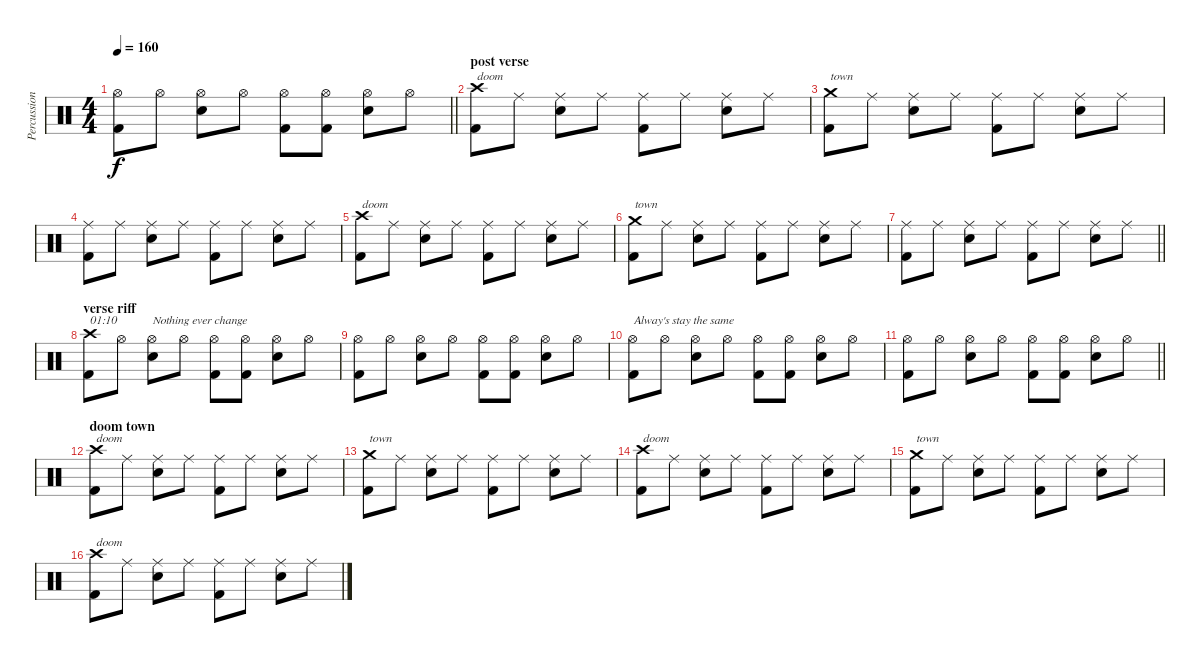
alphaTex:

\track ("Percussion 2 var" "Percussion") {mute instrument percussion}
\staff {score}
\articulation defaults
\ts (4 4)
\tempo 160
\clef neutral
\barLineRight lightlight
\ks c
("Hi-Hat (open)" "Kick (hit) 2").8{dy f} "Hi-Hat (open)".8 ("Hi-Hat (open)" "Snare (hit) 2").8 "Hi-Hat (open)".8 ("Hi-Hat (open)" "Kick (hit) 2").8 ("Hi-Hat (open)" "Kick (hit) 2").8 ("Hi-Hat (open)" "Snare (hit) 2").8 "Hi-Hat (open)".8 |
\section ("" "post verse")
("Crash high (hit)" "Kick (hit) 2").8{txt "doom"} "Ride (middle)".8 ("Ride (middle)" "Snare (hit) 2").8 "Ride (middle)".8 ("Ride (middle)" "Kick (hit) 2").8 "Ride (middle)".8 ("Ride (middle)" "Snare (hit) 2").8 "Ride (middle)".8 |
("Crash medium (hit)" "Kick (hit) 2").8{txt "town"} "Ride (middle)".8 ("Ride (middle)" "Snare (hit) 2").8 "Ride (middle)".8 ("Ride (middle)" "Kick (hit) 2").8 "Ride (middle)".8 ("Ride (middle)" "Snare (hit) 2").8 "Ride (middle)".8 |
("Ride (middle)" "Kick (hit) 2").8 "Ride (middle)".8 ("Ride (middle)" "Snare (hit) 2").8 "Ride (middle)".8 ("Ride (middle)" "Kick (hit) 2").8 "Ride (middle)".8 ("Ride (middle)" "Snare (hit) 2").8 "Ride (middle)".8 |
("Crash high (hit)" "Kick (hit) 2").8{txt "doom"} "Ride (middle)".8 ("Ride (middle)" "Snare (hit) 2").8 "Ride (middle)".8 ("Ride (middle)" "Kick (hit) 2").8 "Ride (middle)".8 ("Ride (middle)" "Snare (hit) 2").8 "Ride (middle)".8 |
("Crash medium (hit)" "Kick (hit) 2").8{txt "town"} "Ride (middle)".8 ("Ride (middle)" "Snare (hit) 2").8 "Ride (middle)".8 ("Ride (middle)" "Kick (hit) 2").8 "Ride (middle)".8 ("Ride (middle)" "Snare (hit) 2").8 "Ride (middle)".8 |
\barLineRight lightlight
("Ride (middle)" "Kick (hit) 2").8 "Ride (middle)".8 ("Ride (middle)" "Snare (hit) 2").8 "Ride (middle)".8 ("Ride (middle)" "Kick (hit) 2").8 "Ride (middle)".8 ("Ride (middle)" "Snare (hit) 2").8 "Ride (middle)".8 |
\section ("" "verse riff")
("Crash high (hit)" "Kick (hit) 2").8{txt "01:10"} "Hi-Hat (open)".8 ("Hi-Hat (open)" "Snare (hit) 2").8{txt "Nothing ever change"} "Hi-Hat (open)".8 ("Hi-Hat (open)" "Kick (hit) 2").8 ("Hi-Hat (open)" "Kick (hit) 2").8 ("Hi-Hat (open)" "Snare (hit) 2").8 "Hi-Hat (open)".8 |
("Hi-Hat (open)" "Kick (hit) 2").8 "Hi-Hat (open)".8 ("Hi-Hat (open)" "Snare (hit) 2").8 "Hi-Hat (open)".8 ("Hi-Hat (open)" "Kick (hit) 2").8 ("Hi-Hat (open)" "Kick (hit) 2").8 ("Hi-Hat (open)" "Snare (hit) 2").8 "Hi-Hat (open)".8 |
("Hi-Hat (open)" "Kick (hit) 2").8{txt "Alway's stay the same"} "Hi-Hat (open)".8 ("Hi-Hat (open)" "Snare (hit) 2").8 "Hi-Hat (open)".8 ("Hi-Hat (open)" "Kick (hit) 2").8 ("Hi-Hat (open)" "Kick (hit) 2").8 ("Hi-Hat (open)" "Snare (hit) 2").8 "Hi-Hat (open)".8 |
\barLineRight lightlight
("Hi-Hat (open)" "Kick (hit) 2").8 "Hi-Hat (open)".8 ("Hi-Hat (open)" "Snare (hit) 2").8 "Hi-Hat (open)".8 ("Hi-Hat (open)" "Kick (hit) 2").8 ("Hi-Hat (open)" "Kick (hit) 2").8 ("Hi-Hat (open)" "Snare (hit) 2").8 "Hi-Hat (open)".8 |
\section ("" "doom town")
("Crash high (hit)" "Kick (hit) 2").8{txt "doom"} "Ride (middle)".8 ("Ride (middle)" "Snare (hit) 2").8 "Ride (middle)".8 ("Ride (middle)" "Kick (hit) 2").8 "Ride (middle)".8 ("Ride (middle)" "Snare (hit) 2").8 "Ride (middle)".8 |
("Crash medium (hit)" "Kick (hit) 2").8{txt "town"} "Ride (middle)".8 ("Ride (middle)" "Snare (hit) 2").8 "Ride (middle)".8 ("Ride (middle)" "Kick (hit) 2").8 "Ride (middle)".8 ("Ride (middle)" "Snare (hit) 2").8 "Ride (middle)".8 |
("Crash high (hit)" "Kick (hit) 2").8{txt "doom"} "Ride (middle)".8 ("Ride (middle)" "Snare (hit) 2").8 "Ride (middle)".8 ("Ride (middle)" "Kick (hit) 2").8 "Ride (middle)".8 ("Ride (middle)" "Snare (hit) 2").8 "Ride (middle)".8 |
("Crash medium (hit)" "Kick (hit) 2").8{txt "town"} "Ride (middle)".8 ("Ride (middle)" "Snare (hit) 2").8 "Ride (middle)".8 ("Ride (middle)" "Kick (hit) 2").8 "Ride (middle)".8 ("Ride (middle)" "Snare (hit) 2").8 "Ride (middle)".8 |
("Crash high (hit)" "Kick (hit) 2").8{txt "doom"} "Ride (middle)".8 ("Ride (middle)" "Snare (hit) 2").8 "Ride (middle)".8 ("Ride (middle)" "Kick (hit) 2").8 "Ride (middle)".8 ("Ride (middle)" "Snare (hit) 2").8 "Ride (middle)".8
